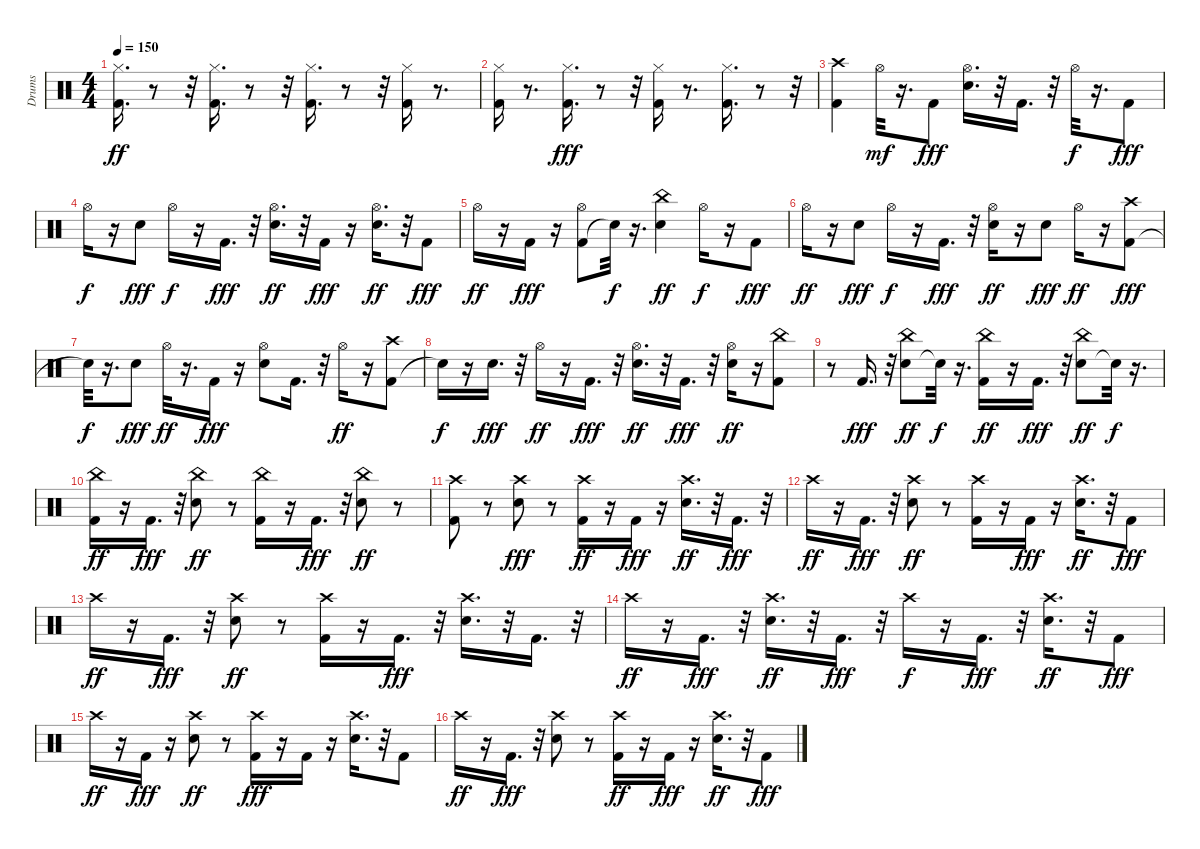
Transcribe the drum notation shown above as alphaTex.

\track ("Drums" "Drums") {instrument percussion}
\staff {score}
\articulation defaults
\ts (4 4)
\tempo 150
\clef neutral
\ks c
("Kick (hit) 2" "Hi-Hat (closed)").16{d dy ff} r.8 r.32 ("Kick (hit) 2" "Hi-Hat (closed)").16{d} r.8 r.32 ("Kick (hit) 2" "Hi-Hat (closed)").16{d} r.8 r.32 ("Kick (hit) 2" "Hi-Hat (closed)").16 r.8{d} |
("Kick (hit) 2" "Hi-Hat (closed)").16 r.8{d} ("Kick (hit) 2" "Hi-Hat (closed)").16{d dy fff} r.8 r.32 ("Kick (hit) 2" "Hi-Hat (closed)").16 r.8{d} ("Kick (hit) 2" "Hi-Hat (closed)").16{d} r.8 r.32 |
("Kick (hit) 2" "Crash high (hit)").4 "Hi-Hat (open)".32{dy mf} r.16{d} "Kick (hit) 2".8{dy fff} ("Snare (hit) 2" "Hi-Hat (open)").16{d} r.32 "Kick (hit) 2".16{d} r.32 "Hi-Hat (open)".32{dy f} r.16{d} "Kick (hit) 2".8{dy fff} |
"Hi-Hat (open)".16{dy f} r.16 "Snare (hit) 2".8{dy fff} "Hi-Hat (open)".16{dy f} r.16 "Kick (hit) 2".16{d dy fff} r.32 ("Snare (hit) 2" "Hi-Hat (open)").16{d dy ff} r.32 "Kick (hit) 2".16{dy fff} r.16 ("Snare (hit) 2" "Hi-Hat (open)").16{d dy ff} r.32 "Kick (hit) 2".8{dy fff} |
"Hi-Hat (open)".16{dy ff} r.16 "Kick (hit) 2".16{dy fff} r.16 ("Kick (hit) 2" "Hi-Hat (open)").8 "Snare (hit)"{t}.32{dy f} r.16{d} ("Snare (hit) 2" "China (hit)").4{dy ff} "Hi-Hat (open)".16{dy f} r.16 "Kick (hit) 2".8{dy fff} |
"Hi-Hat (open)".16{dy ff} r.16 "Snare (hit) 2".8{dy fff} "Hi-Hat (open)".16{dy f} r.16 "Kick (hit) 2".16{d dy fff} r.32 ("Snare (hit) 2" "Hi-Hat (open)").16{dy ff} r.16 "Snare (hit) 2".8{dy fff} "Hi-Hat (open)".16{dy ff} r.16 ("Kick (hit) 2" "Crash high (hit)").8{dy fff} |
"Snare (hit)"{t}.32{dy f} r.16{d} "Snare (hit) 2".8{dy fff} "Hi-Hat (open)".32{dy ff} r.16{d} "Kick (hit) 2".16{dy fff} r.16 ("Snare (hit) 2" "Hi-Hat (open)").8 "Kick (hit) 2".16{d} r.32 "Hi-Hat (open)".16{dy ff} r.16 ("Kick (hit) 2" "Crash high (hit)").8 |
"Snare (hit)"{t}.16{dy f} r.16 "Snare (hit) 2".16{d dy fff} r.32 "Hi-Hat (open)".16{dy ff} r.16 "Kick (hit) 2".16{d dy fff} r.32 ("Snare (hit) 2" "Hi-Hat (open)").16{d dy ff} r.32 "Kick (hit) 2".16{d dy fff} r.32 ("Snare (hit) 2" "Hi-Hat (open)").16{dy ff} r.16 ("Kick (hit) 2" "China (hit)").8 |
r.8 "Kick (hit) 2".16{d dy fff} r.32 ("Snare (hit) 2" "China (hit)").8{dy ff} "Snare (hit)"{t}.32{dy f} r.16{d} ("Kick (hit) 2" "China (hit)").16{dy ff} r.16 "Kick (hit) 2".16{d dy fff} r.32 ("Snare (hit) 2" "China (hit)").8{dy ff} "Snare (hit)"{t}.32{dy f} r.16{d} |
("Kick (hit) 2" "China (hit)").16{dy ff} r.16 "Kick (hit) 2".16{d dy fff} r.32 ("Snare (hit) 2" "China (hit)").8{dy ff} r.8 ("Kick (hit) 2" "China (hit)").16 r.16 "Kick (hit) 2".16{d dy fff} r.32 ("Snare (hit) 2" "China (hit)").8{dy ff} r.8 |
("Kick (hit) 2" "Crash high (hit)").8 r.8 ("Snare (hit) 2" "Crash high (hit)").8{dy fff} r.8 ("Kick (hit) 2" "Crash high (hit)").16{dy ff} r.16 "Kick (hit) 2".16{dy fff} r.16 ("Snare (hit) 2" "Crash high (hit)").16{d dy ff} r.32 "Kick (hit) 2".16{d dy fff} r.32 |
"Crash high (hit)".16{dy ff} r.16 "Kick (hit) 2".16{d dy fff} r.32 ("Snare (hit) 2" "Crash high (hit)").8{dy ff} r.8 ("Kick (hit) 2" "Crash high (hit)").16 r.16 "Kick (hit) 2".16{dy fff} r.16 ("Snare (hit) 2" "Crash high (hit)").16{d dy ff} r.32 "Kick (hit) 2".8{dy fff} |
"Crash high (hit)".16{dy ff} r.16 "Kick (hit) 2".16{d dy fff} r.32 ("Snare (hit) 2" "Crash high (hit)").8{dy ff} r.8 ("Kick (hit) 2" "Crash high (hit)").16 r.16 "Kick (hit) 2".16{d dy fff} r.32 ("Snare (hit) 2" "Crash high (hit)").16{d} r.32 "Kick (hit) 2".16{d} r.32 |
"Crash high (hit)".16{dy ff} r.16 "Kick (hit) 2".16{d dy fff} r.32 ("Snare (hit) 2" "Crash high (hit)").16{d dy ff} r.32 "Kick (hit) 2".16{d dy fff} r.32 "Crash high (hit)".16{dy f} r.16 "Kick (hit) 2".16{d dy fff} r.32 ("Snare (hit) 2" "Crash high (hit)").16{d dy ff} r.32 "Kick (hit) 2".8{dy fff} |
"Crash high (hit)".16{dy ff} r.16 "Kick (hit) 2".16{dy fff} r.16 ("Snare (hit) 2" "Crash high (hit)").8{dy ff} r.8 ("Kick (hit) 2" "Crash high (hit)").16{dy fff} r.16 "Kick (hit) 2".16 r.16 ("Snare (hit) 2" "Crash high (hit)").16{d} r.32 "Kick (hit) 2".8 |
"Crash high (hit)".16{dy ff} r.16 "Kick (hit) 2".16{d dy fff} r.32 ("Snare (hit) 2" "Crash high (hit)").8 r.8 ("Kick (hit) 2" "Crash high (hit)").16{dy ff} r.16 "Kick (hit) 2".16{dy fff} r.16 ("Snare (hit) 2" "Crash high (hit)").16{d dy ff} r.32 "Kick (hit) 2".8{dy fff}
